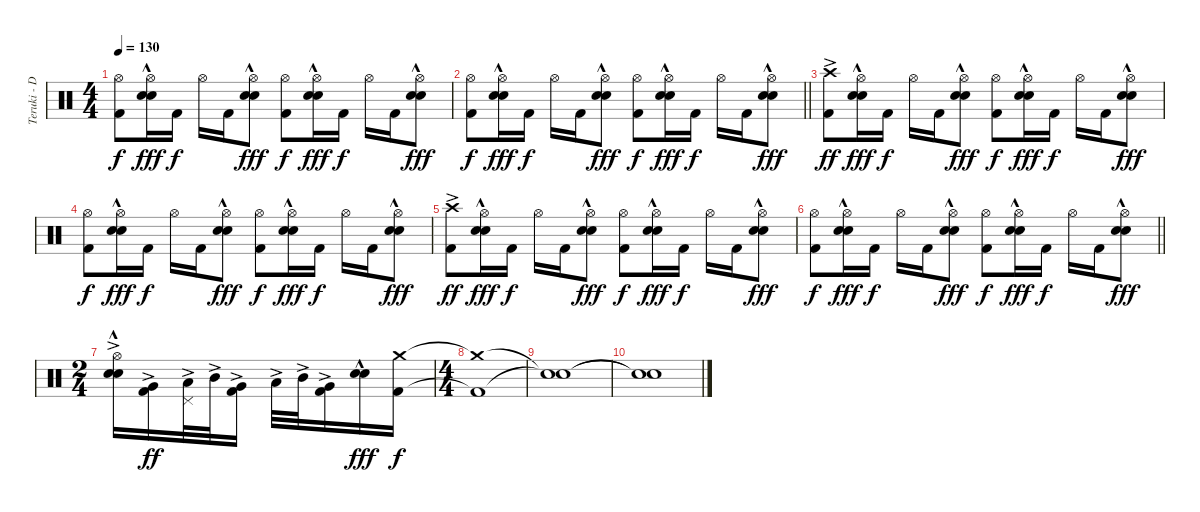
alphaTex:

\track ("Teruki - Drums" "Teruki - D") {instrument percussion}
\staff {score}
\articulation defaults
\ts (4 4)
\tempo 130
\clef neutral
\ks c
("Hi-Hat (open)" "Kick (hit) 2").8{dy f} ("Hi-Hat (open)" "Electric Snare (hit)"{hac} "Snare (hit) 2").16{dy fff} "Kick (hit) 2".16{dy f} "Hi-Hat (open)".16 "Kick (hit) 2".16 ("Hi-Hat (open)" "Electric Snare (hit)"{hac} "Snare (hit) 2").8{dy fff} ("Hi-Hat (open)" "Kick (hit) 2").8{dy f} ("Hi-Hat (open)" "Electric Snare (hit)"{hac} "Snare (hit) 2").16{dy fff} "Kick (hit) 2".16{dy f} "Hi-Hat (open)".16 "Kick (hit) 2".16 ("Hi-Hat (open)" "Electric Snare (hit)"{hac} "Snare (hit) 2").8{dy fff} |
\barLineRight lightlight
("Hi-Hat (open)" "Kick (hit) 2").8{dy f} ("Hi-Hat (open)" "Electric Snare (hit)"{hac} "Snare (hit) 2").16{dy fff} "Kick (hit) 2".16{dy f} "Hi-Hat (open)".16 "Kick (hit) 2".16 ("Hi-Hat (open)" "Electric Snare (hit)"{hac} "Snare (hit) 2").8{dy fff} ("Hi-Hat (open)" "Kick (hit) 2").8{dy f} ("Hi-Hat (open)" "Electric Snare (hit)"{hac} "Snare (hit) 2").16{dy fff} "Kick (hit) 2".16{dy f} "Hi-Hat (open)".16 "Kick (hit) 2".16 ("Hi-Hat (open)" "Electric Snare (hit)"{hac} "Snare (hit) 2").8{dy fff} |
("Crash high (hit)"{ac} "Kick (hit) 2").8{dy ff} ("Hi-Hat (open)" "Electric Snare (hit)"{hac} "Snare (hit) 2").16{dy fff} "Kick (hit) 2".16{dy f} "Hi-Hat (open)".16 "Kick (hit) 2".16 ("Hi-Hat (open)" "Electric Snare (hit)"{hac} "Snare (hit) 2").8{dy fff} ("Hi-Hat (open)" "Kick (hit) 2").8{dy f} ("Hi-Hat (open)" "Electric Snare (hit)"{hac} "Snare (hit) 2").16{dy fff} "Kick (hit) 2".16{dy f} "Hi-Hat (open)".16 "Kick (hit) 2".16 ("Hi-Hat (open)" "Electric Snare (hit)"{hac} "Snare (hit) 2").8{dy fff} |
("Hi-Hat (open)" "Kick (hit) 2").8{dy f} ("Hi-Hat (open)" "Electric Snare (hit)"{hac} "Snare (hit) 2").16{dy fff} "Kick (hit) 2".16{dy f} "Hi-Hat (open)".16 "Kick (hit) 2".16 ("Hi-Hat (open)" "Electric Snare (hit)"{hac} "Snare (hit) 2").8{dy fff} ("Hi-Hat (open)" "Kick (hit) 2").8{dy f} ("Hi-Hat (open)" "Electric Snare (hit)"{hac} "Snare (hit) 2").16{dy fff} "Kick (hit) 2".16{dy f} "Hi-Hat (open)".16 "Kick (hit) 2".16 ("Hi-Hat (open)" "Electric Snare (hit)"{hac} "Snare (hit) 2").8{dy fff} |
("Crash high (hit)"{ac} "Kick (hit) 2").8{dy ff} ("Hi-Hat (open)" "Electric Snare (hit)"{hac} "Snare (hit) 2").16{dy fff} "Kick (hit) 2".16{dy f} "Hi-Hat (open)".16 "Kick (hit) 2".16 ("Hi-Hat (open)" "Electric Snare (hit)"{hac} "Snare (hit) 2").8{dy fff} ("Hi-Hat (open)" "Kick (hit) 2").8{dy f} ("Hi-Hat (open)" "Electric Snare (hit)"{hac} "Snare (hit) 2").16{dy fff} "Kick (hit) 2".16{dy f} "Hi-Hat (open)".16 "Kick (hit) 2".16 ("Hi-Hat (open)" "Electric Snare (hit)"{hac} "Snare (hit) 2").8{dy fff} |
\barLineRight lightlight
("Hi-Hat (open)" "Kick (hit) 2").8{dy f} ("Hi-Hat (open)" "Electric Snare (hit)"{hac} "Snare (hit) 2").16{dy fff} "Kick (hit) 2".16{dy f} "Hi-Hat (open)".16 "Kick (hit) 2".16 ("Hi-Hat (open)" "Electric Snare (hit)"{hac} "Snare (hit) 2").8{dy fff} ("Hi-Hat (open)" "Kick (hit) 2").8{dy f} ("Hi-Hat (open)" "Electric Snare (hit)"{hac} "Snare (hit) 2").16{dy fff} "Kick (hit) 2".16{dy f} "Hi-Hat (open)".16 "Kick (hit) 2".16 ("Hi-Hat (open)" "Electric Snare (hit)"{hac} "Snare (hit) 2").8{dy fff} |
\ts (2 4)
\section ("" "")
("Hi-Hat (open)"{ac} "Electric Snare (hit)"{hac} "Snare (hit) 2").16 ("Very Low Tom (hit)"{ac} "Kick (hit) 2").16{dy ff} ("Pedal Hi-Hat (hit)"{ac} "Low Tom (hit)"{ac}).32 "Mid Tom (hit)"{ac}.32 ("Very Low Tom (hit)"{ac} "Kick (hit) 2").16 "Low Tom (hit)"{ac}.32 "Mid Tom (hit)"{ac}.32 ("Very Low Tom (hit)"{ac} "Kick (hit) 2").16 ("Electric Snare (hit)"{hac} "Snare (hit) 2").16{dy fff} ("Crash medium (hit)" "Kick (hit) 2").16{dy f} |
\ts (4 4)
("Crash medium (hit)"{t} "Kick (hit) 2"{t}).1 |
("Snare (hit)"{t} "Snare (hit)"{t}).1 |
("Snare (hit)"{t} "Snare (hit)"{t}).1
